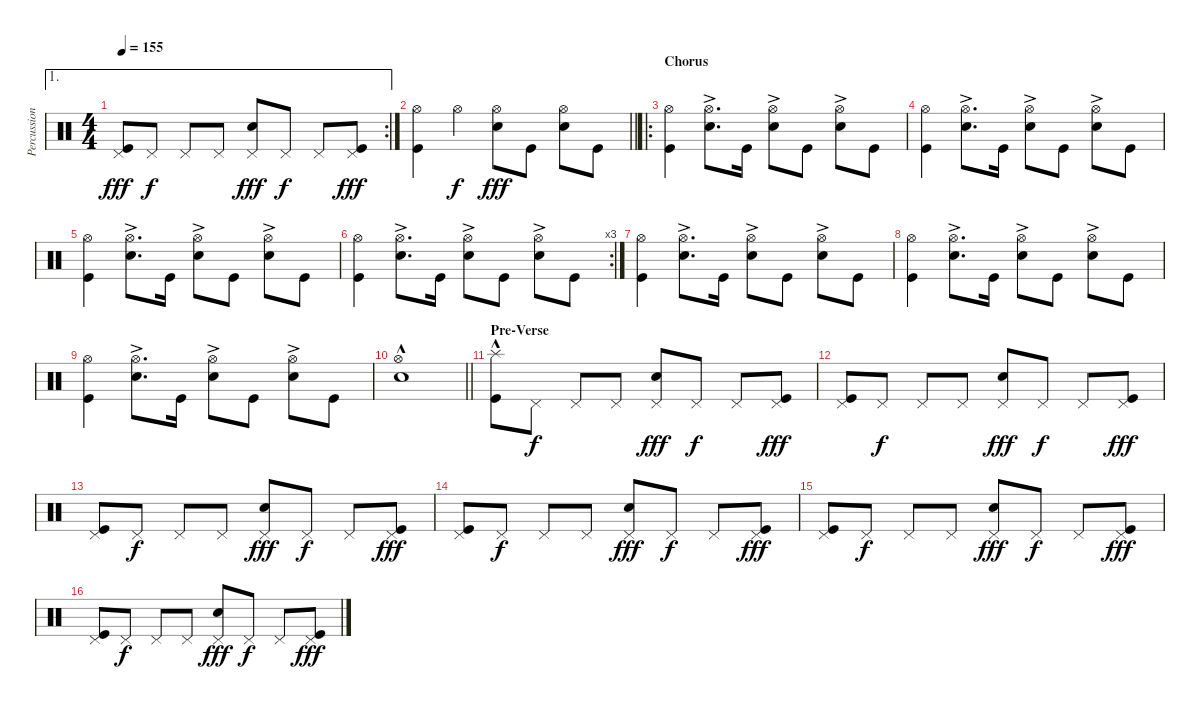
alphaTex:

\track ("Percussion" "Percussion") {instrument percussion}
\staff {score}
\articulation defaults
\ae 1
\rc 2
\ts (4 4)
\tempo 155
\clef neutral
\ks c
("Pedal Hi-Hat (hit)" "Kick (hit)").8{dy fff} "Pedal Hi-Hat (hit)".8{dy f} "Pedal Hi-Hat (hit)".8 "Pedal Hi-Hat (hit)".8 ("Pedal Hi-Hat (hit)" "Snare (hit) 2").8{dy fff} "Pedal Hi-Hat (hit)".8{dy f} "Pedal Hi-Hat (hit)".8 ("Pedal Hi-Hat (hit)" "Kick (hit)").8{dy fff} |
\barLineRight lightlight
("Hi-Hat (open)" "Kick (hit)").4 "Hi-Hat (open)".4{dy f} ("Hi-Hat (open)" "Snare (hit) 2").8{dy fff} "Kick (hit)".8 ("Hi-Hat (open)" "Snare (hit) 2").8 "Kick (hit)".8 |
\ro
\section ("" "Chorus")
("Hi-Hat (open)" "Kick (hit)").4 ("Hi-Hat (open)" "Snare (hit) 2"{ac}).8{d} "Kick (hit)".16 ("Hi-Hat (open)" "Snare (hit) 2"{ac}).8 "Kick (hit)".8 ("Hi-Hat (open)" "Snare (hit) 2"{ac}).8 "Kick (hit)".8 |
("Hi-Hat (open)" "Kick (hit)").4 ("Hi-Hat (open)" "Snare (hit) 2"{ac}).8{d} "Kick (hit)".16 ("Hi-Hat (open)" "Snare (hit) 2"{ac}).8 "Kick (hit)".8 ("Hi-Hat (open)" "Snare (hit) 2"{ac}).8 "Kick (hit)".8 |
("Hi-Hat (open)" "Kick (hit)").4 ("Hi-Hat (open)" "Snare (hit) 2"{ac}).8{d} "Kick (hit)".16 ("Hi-Hat (open)" "Snare (hit) 2"{ac}).8 "Kick (hit)".8 ("Hi-Hat (open)" "Snare (hit) 2"{ac}).8 "Kick (hit)".8 |
\rc 3
("Hi-Hat (open)" "Kick (hit)").4 ("Hi-Hat (open)" "Snare (hit) 2"{ac}).8{d} "Kick (hit)".16 ("Hi-Hat (open)" "Snare (hit) 2"{ac}).8 "Kick (hit)".8 ("Hi-Hat (open)" "Snare (hit) 2"{ac}).8 "Kick (hit)".8 |
("Hi-Hat (open)" "Kick (hit)").4 ("Hi-Hat (open)" "Snare (hit) 2"{ac}).8{d} "Kick (hit)".16 ("Hi-Hat (open)" "Snare (hit) 2"{ac}).8 "Kick (hit)".8 ("Hi-Hat (open)" "Snare (hit) 2"{ac}).8 "Kick (hit)".8 |
("Hi-Hat (open)" "Kick (hit)").4 ("Hi-Hat (open)" "Snare (hit) 2"{ac}).8{d} "Kick (hit)".16 ("Hi-Hat (open)" "Snare (hit) 2"{ac}).8 "Kick (hit)".8 ("Hi-Hat (open)" "Snare (hit) 2"{ac}).8 "Kick (hit)".8 |
("Hi-Hat (open)" "Kick (hit)").4 ("Hi-Hat (open)" "Snare (hit) 2"{ac}).8{d} "Kick (hit)".16 ("Hi-Hat (open)" "Snare (hit) 2"{ac}).8 "Kick (hit)".8 ("Hi-Hat (open)" "Snare (hit) 2"{ac}).8 "Kick (hit)".8 |
\barLineRight lightlight
("Hi-Hat (open)" "Snare (hit) 2"{hac}).1 |
\section ("" "Pre-Verse")
("Splash (hit)"{hac} "Kick (hit)").8 "Pedal Hi-Hat (hit)".8{dy f} "Pedal Hi-Hat (hit)".8 "Pedal Hi-Hat (hit)".8 ("Pedal Hi-Hat (hit)" "Snare (hit) 2").8{dy fff} "Pedal Hi-Hat (hit)".8{dy f} "Pedal Hi-Hat (hit)".8 ("Pedal Hi-Hat (hit)" "Kick (hit)").8{dy fff} |
("Pedal Hi-Hat (hit)" "Kick (hit)").8 "Pedal Hi-Hat (hit)".8{dy f} "Pedal Hi-Hat (hit)".8 "Pedal Hi-Hat (hit)".8 ("Pedal Hi-Hat (hit)" "Snare (hit) 2").8{dy fff} "Pedal Hi-Hat (hit)".8{dy f} "Pedal Hi-Hat (hit)".8 ("Pedal Hi-Hat (hit)" "Kick (hit)").8{dy fff} |
("Pedal Hi-Hat (hit)" "Kick (hit)").8 "Pedal Hi-Hat (hit)".8{dy f} "Pedal Hi-Hat (hit)".8 "Pedal Hi-Hat (hit)".8 ("Pedal Hi-Hat (hit)" "Snare (hit) 2").8{dy fff} "Pedal Hi-Hat (hit)".8{dy f} "Pedal Hi-Hat (hit)".8 ("Pedal Hi-Hat (hit)" "Kick (hit)").8{dy fff} |
("Pedal Hi-Hat (hit)" "Kick (hit)").8 "Pedal Hi-Hat (hit)".8{dy f} "Pedal Hi-Hat (hit)".8 "Pedal Hi-Hat (hit)".8 ("Pedal Hi-Hat (hit)" "Snare (hit) 2").8{dy fff} "Pedal Hi-Hat (hit)".8{dy f} "Pedal Hi-Hat (hit)".8 ("Pedal Hi-Hat (hit)" "Kick (hit)").8{dy fff} |
("Pedal Hi-Hat (hit)" "Kick (hit)").8 "Pedal Hi-Hat (hit)".8{dy f} "Pedal Hi-Hat (hit)".8 "Pedal Hi-Hat (hit)".8 ("Pedal Hi-Hat (hit)" "Snare (hit) 2").8{dy fff} "Pedal Hi-Hat (hit)".8{dy f} "Pedal Hi-Hat (hit)".8 ("Pedal Hi-Hat (hit)" "Kick (hit)").8{dy fff} |
("Pedal Hi-Hat (hit)" "Kick (hit)").8 "Pedal Hi-Hat (hit)".8{dy f} "Pedal Hi-Hat (hit)".8 "Pedal Hi-Hat (hit)".8 ("Pedal Hi-Hat (hit)" "Snare (hit) 2").8{dy fff} "Pedal Hi-Hat (hit)".8{dy f} "Pedal Hi-Hat (hit)".8 ("Pedal Hi-Hat (hit)" "Kick (hit)").8{dy fff}
